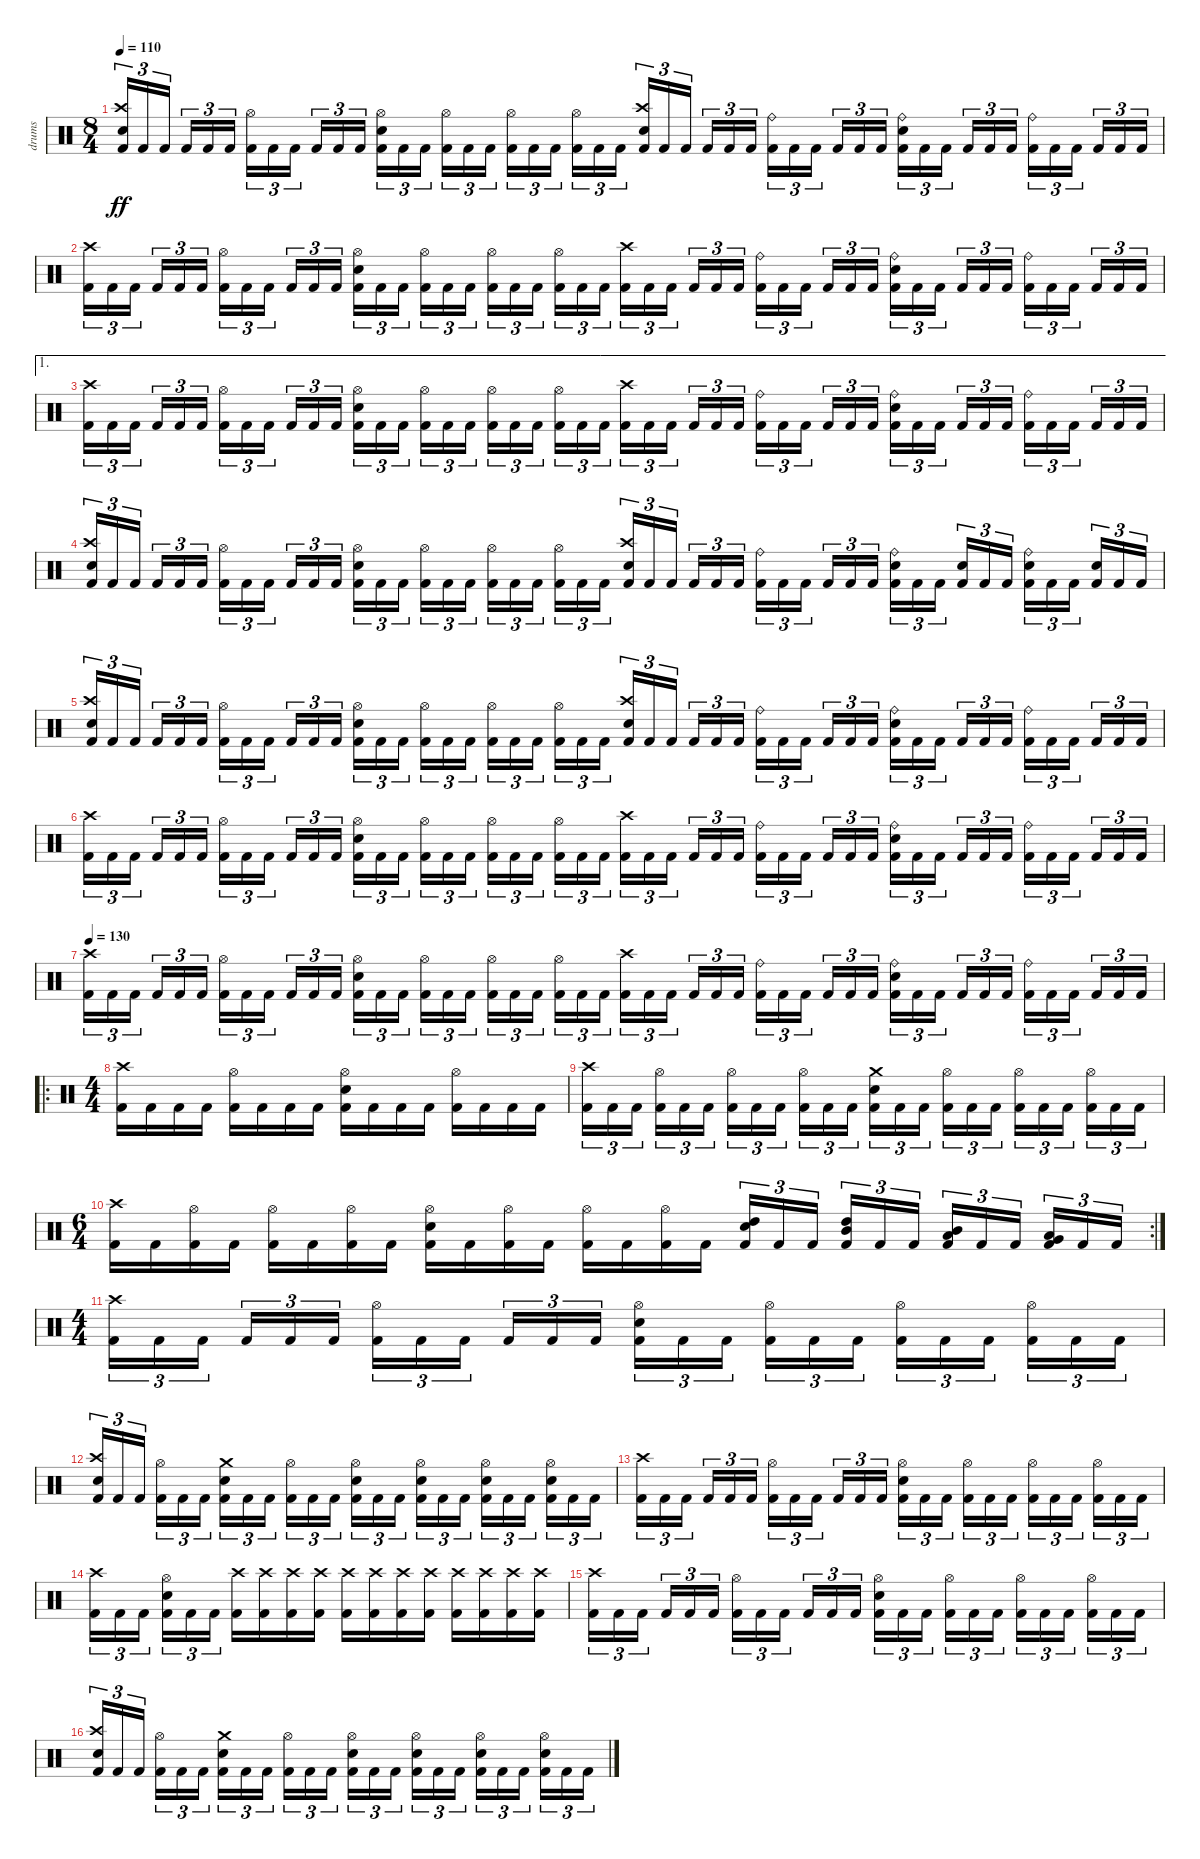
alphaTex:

\track ("drums" "drums") {instrument percussion}
\staff {score}
\articulation defaults
\ts (8 4)
\tempo 110
\clef neutral
\ks c
("Electric Snare (hit)" "Crash high (hit)" "Kick (hit) 2").16{tu (3 2) dy ff} "Kick (hit) 2".16{tu (3 2)} "Kick (hit) 2".16{tu (3 2) beam splitsecondary} "Kick (hit) 2".16{tu (3 2)} "Kick (hit) 2".16{tu (3 2)} "Kick (hit) 2".16{tu (3 2)} ("Hi-Hat (open)" "Kick (hit) 2").16{tu (3 2)} "Kick (hit) 2".16{tu (3 2)} "Kick (hit) 2".16{tu (3 2) beam splitsecondary} "Kick (hit) 2".16{tu (3 2)} "Kick (hit) 2".16{tu (3 2)} "Kick (hit) 2".16{tu (3 2)} ("Electric Snare (hit)" "Hi-Hat (open)" "Kick (hit) 2").16{tu (3 2)} "Kick (hit) 2".16{tu (3 2)} "Kick (hit) 2".16{tu (3 2) beam splitsecondary} ("Hi-Hat (open)" "Kick (hit) 2").16{tu (3 2)} "Kick (hit) 2".16{tu (3 2)} "Kick (hit) 2".16{tu (3 2)} ("Hi-Hat (open)" "Kick (hit) 2").16{tu (3 2)} "Kick (hit) 2".16{tu (3 2)} "Kick (hit) 2".16{tu (3 2) beam splitsecondary} ("Hi-Hat (open)" "Kick (hit) 2").16{tu (3 2)} "Kick (hit) 2".16{tu (3 2)} "Kick (hit) 2".16{tu (3 2)} ("Electric Snare (hit)" "Crash high (hit)" "Kick (hit) 2").16{tu (3 2)} "Kick (hit) 2".16{tu (3 2)} "Kick (hit) 2".16{tu (3 2) beam splitsecondary} "Kick (hit) 2".16{tu (3 2)} "Kick (hit) 2".16{tu (3 2)} "Kick (hit) 2".16{tu (3 2)} ("Ride (bell)" "Kick (hit) 2").16{tu (3 2)} "Kick (hit) 2".16{tu (3 2)} "Kick (hit) 2".16{tu (3 2) beam splitsecondary} "Kick (hit) 2".16{tu (3 2)} "Kick (hit) 2".16{tu (3 2)} "Kick (hit) 2".16{tu (3 2)} ("Electric Snare (hit)" "Ride (bell)" "Kick (hit) 2").16{tu (3 2)} "Kick (hit) 2".16{tu (3 2)} "Kick (hit) 2".16{tu (3 2) beam splitsecondary} "Kick (hit) 2".16{tu (3 2)} "Kick (hit) 2".16{tu (3 2)} "Kick (hit) 2".16{tu (3 2)} ("Ride (bell)" "Kick (hit) 2").16{tu (3 2)} "Kick (hit) 2".16{tu (3 2)} "Kick (hit) 2".16{tu (3 2) beam splitsecondary} "Kick (hit) 2".16{tu (3 2)} "Kick (hit) 2".16{tu (3 2)} "Kick (hit) 2".16{tu (3 2)} |
("Crash high (hit)" "Kick (hit) 2").16{tu (3 2)} "Kick (hit) 2".16{tu (3 2)} "Kick (hit) 2".16{tu (3 2) beam splitsecondary} "Kick (hit) 2".16{tu (3 2)} "Kick (hit) 2".16{tu (3 2)} "Kick (hit) 2".16{tu (3 2)} ("Hi-Hat (open)" "Kick (hit) 2").16{tu (3 2)} "Kick (hit) 2".16{tu (3 2)} "Kick (hit) 2".16{tu (3 2) beam splitsecondary} "Kick (hit) 2".16{tu (3 2)} "Kick (hit) 2".16{tu (3 2)} "Kick (hit) 2".16{tu (3 2)} ("Electric Snare (hit)" "Hi-Hat (open)" "Kick (hit) 2").16{tu (3 2)} "Kick (hit) 2".16{tu (3 2)} "Kick (hit) 2".16{tu (3 2) beam splitsecondary} ("Hi-Hat (open)" "Kick (hit) 2").16{tu (3 2)} "Kick (hit) 2".16{tu (3 2)} "Kick (hit) 2".16{tu (3 2)} ("Hi-Hat (open)" "Kick (hit) 2").16{tu (3 2)} "Kick (hit) 2".16{tu (3 2)} "Kick (hit) 2".16{tu (3 2) beam splitsecondary} ("Hi-Hat (open)" "Kick (hit) 2").16{tu (3 2)} "Kick (hit) 2".16{tu (3 2)} "Kick (hit) 2".16{tu (3 2)} ("Crash high (hit)" "Kick (hit) 2").16{tu (3 2)} "Kick (hit) 2".16{tu (3 2)} "Kick (hit) 2".16{tu (3 2) beam splitsecondary} "Kick (hit) 2".16{tu (3 2)} "Kick (hit) 2".16{tu (3 2)} "Kick (hit) 2".16{tu (3 2)} ("Ride (bell)" "Kick (hit) 2").16{tu (3 2)} "Kick (hit) 2".16{tu (3 2)} "Kick (hit) 2".16{tu (3 2) beam splitsecondary} "Kick (hit) 2".16{tu (3 2)} "Kick (hit) 2".16{tu (3 2)} "Kick (hit) 2".16{tu (3 2)} ("Electric Snare (hit)" "Ride (bell)" "Kick (hit) 2").16{tu (3 2)} "Kick (hit) 2".16{tu (3 2)} "Kick (hit) 2".16{tu (3 2) beam splitsecondary} "Kick (hit) 2".16{tu (3 2)} "Kick (hit) 2".16{tu (3 2)} "Kick (hit) 2".16{tu (3 2)} ("Ride (bell)" "Kick (hit) 2").16{tu (3 2)} "Kick (hit) 2".16{tu (3 2)} "Kick (hit) 2".16{tu (3 2) beam splitsecondary} "Kick (hit) 2".16{tu (3 2)} "Kick (hit) 2".16{tu (3 2)} "Kick (hit) 2".16{tu (3 2)} |
\ae 1
("Crash high (hit)" "Kick (hit) 2").16{tu (3 2)} "Kick (hit) 2".16{tu (3 2)} "Kick (hit) 2".16{tu (3 2) beam splitsecondary} "Kick (hit) 2".16{tu (3 2)} "Kick (hit) 2".16{tu (3 2)} "Kick (hit) 2".16{tu (3 2)} ("Hi-Hat (open)" "Kick (hit) 2").16{tu (3 2)} "Kick (hit) 2".16{tu (3 2)} "Kick (hit) 2".16{tu (3 2) beam splitsecondary} "Kick (hit) 2".16{tu (3 2)} "Kick (hit) 2".16{tu (3 2)} "Kick (hit) 2".16{tu (3 2)} ("Electric Snare (hit)" "Hi-Hat (open)" "Kick (hit) 2").16{tu (3 2)} "Kick (hit) 2".16{tu (3 2)} "Kick (hit) 2".16{tu (3 2) beam splitsecondary} ("Hi-Hat (open)" "Kick (hit) 2").16{tu (3 2)} "Kick (hit) 2".16{tu (3 2)} "Kick (hit) 2".16{tu (3 2)} ("Hi-Hat (open)" "Kick (hit) 2").16{tu (3 2)} "Kick (hit) 2".16{tu (3 2)} "Kick (hit) 2".16{tu (3 2) beam splitsecondary} ("Hi-Hat (open)" "Kick (hit) 2").16{tu (3 2)} "Kick (hit) 2".16{tu (3 2)} "Kick (hit) 2".16{tu (3 2)} ("Crash high (hit)" "Kick (hit) 2").16{tu (3 2)} "Kick (hit) 2".16{tu (3 2)} "Kick (hit) 2".16{tu (3 2) beam splitsecondary} "Kick (hit) 2".16{tu (3 2)} "Kick (hit) 2".16{tu (3 2)} "Kick (hit) 2".16{tu (3 2)} ("Ride (bell)" "Kick (hit) 2").16{tu (3 2)} "Kick (hit) 2".16{tu (3 2)} "Kick (hit) 2".16{tu (3 2) beam splitsecondary} "Kick (hit) 2".16{tu (3 2)} "Kick (hit) 2".16{tu (3 2)} "Kick (hit) 2".16{tu (3 2)} ("Electric Snare (hit)" "Ride (bell)" "Kick (hit) 2").16{tu (3 2)} "Kick (hit) 2".16{tu (3 2)} "Kick (hit) 2".16{tu (3 2) beam splitsecondary} "Kick (hit) 2".16{tu (3 2)} "Kick (hit) 2".16{tu (3 2)} "Kick (hit) 2".16{tu (3 2)} ("Ride (bell)" "Kick (hit) 2").16{tu (3 2)} "Kick (hit) 2".16{tu (3 2)} "Kick (hit) 2".16{tu (3 2) beam splitsecondary} "Kick (hit) 2".16{tu (3 2)} "Kick (hit) 2".16{tu (3 2)} "Kick (hit) 2".16{tu (3 2)} |
("Electric Snare (hit)" "Crash high (hit)" "Kick (hit) 2").16{tu (3 2)} "Kick (hit) 2".16{tu (3 2)} "Kick (hit) 2".16{tu (3 2) beam splitsecondary} "Kick (hit) 2".16{tu (3 2)} "Kick (hit) 2".16{tu (3 2)} "Kick (hit) 2".16{tu (3 2)} ("Hi-Hat (open)" "Kick (hit) 2").16{tu (3 2)} "Kick (hit) 2".16{tu (3 2)} "Kick (hit) 2".16{tu (3 2) beam splitsecondary} "Kick (hit) 2".16{tu (3 2)} "Kick (hit) 2".16{tu (3 2)} "Kick (hit) 2".16{tu (3 2)} ("Electric Snare (hit)" "Hi-Hat (open)" "Kick (hit) 2").16{tu (3 2)} "Kick (hit) 2".16{tu (3 2)} "Kick (hit) 2".16{tu (3 2) beam splitsecondary} ("Hi-Hat (open)" "Kick (hit) 2").16{tu (3 2)} "Kick (hit) 2".16{tu (3 2)} "Kick (hit) 2".16{tu (3 2)} ("Hi-Hat (open)" "Kick (hit) 2").16{tu (3 2)} "Kick (hit) 2".16{tu (3 2)} "Kick (hit) 2".16{tu (3 2) beam splitsecondary} ("Hi-Hat (open)" "Kick (hit) 2").16{tu (3 2)} "Kick (hit) 2".16{tu (3 2)} "Kick (hit) 2".16{tu (3 2)} ("Electric Snare (hit)" "Crash high (hit)" "Kick (hit) 2").16{tu (3 2)} "Kick (hit) 2".16{tu (3 2)} "Kick (hit) 2".16{tu (3 2) beam splitsecondary} "Kick (hit) 2".16{tu (3 2)} "Kick (hit) 2".16{tu (3 2)} "Kick (hit) 2".16{tu (3 2)} ("Ride (bell)" "Kick (hit) 2").16{tu (3 2)} "Kick (hit) 2".16{tu (3 2)} "Kick (hit) 2".16{tu (3 2) beam splitsecondary} "Kick (hit) 2".16{tu (3 2)} "Kick (hit) 2".16{tu (3 2)} "Kick (hit) 2".16{tu (3 2)} ("Electric Snare (hit)" "Ride (bell)" "Kick (hit) 2").16{tu (3 2)} "Kick (hit) 2".16{tu (3 2)} "Kick (hit) 2".16{tu (3 2) beam splitsecondary} ("Electric Snare (hit)" "Kick (hit) 2").16{tu (3 2)} "Kick (hit) 2".16{tu (3 2)} "Kick (hit) 2".16{tu (3 2)} ("Electric Snare (hit)" "Ride (bell)" "Kick (hit) 2").16{tu (3 2)} "Kick (hit) 2".16{tu (3 2)} "Kick (hit) 2".16{tu (3 2) beam splitsecondary} ("Electric Snare (hit)" "Kick (hit) 2").16{tu (3 2)} "Kick (hit) 2".16{tu (3 2)} "Kick (hit) 2".16{tu (3 2)} |
("Electric Snare (hit)" "Crash high (hit)" "Kick (hit) 2").16{tu (3 2)} "Kick (hit) 2".16{tu (3 2)} "Kick (hit) 2".16{tu (3 2) beam splitsecondary} "Kick (hit) 2".16{tu (3 2)} "Kick (hit) 2".16{tu (3 2)} "Kick (hit) 2".16{tu (3 2)} ("Hi-Hat (open)" "Kick (hit) 2").16{tu (3 2)} "Kick (hit) 2".16{tu (3 2)} "Kick (hit) 2".16{tu (3 2) beam splitsecondary} "Kick (hit) 2".16{tu (3 2)} "Kick (hit) 2".16{tu (3 2)} "Kick (hit) 2".16{tu (3 2)} ("Electric Snare (hit)" "Hi-Hat (open)" "Kick (hit) 2").16{tu (3 2)} "Kick (hit) 2".16{tu (3 2)} "Kick (hit) 2".16{tu (3 2) beam splitsecondary} ("Hi-Hat (open)" "Kick (hit) 2").16{tu (3 2)} "Kick (hit) 2".16{tu (3 2)} "Kick (hit) 2".16{tu (3 2)} ("Hi-Hat (open)" "Kick (hit) 2").16{tu (3 2)} "Kick (hit) 2".16{tu (3 2)} "Kick (hit) 2".16{tu (3 2) beam splitsecondary} ("Hi-Hat (open)" "Kick (hit) 2").16{tu (3 2)} "Kick (hit) 2".16{tu (3 2)} "Kick (hit) 2".16{tu (3 2)} ("Electric Snare (hit)" "Crash high (hit)" "Kick (hit) 2").16{tu (3 2)} "Kick (hit) 2".16{tu (3 2)} "Kick (hit) 2".16{tu (3 2) beam splitsecondary} "Kick (hit) 2".16{tu (3 2)} "Kick (hit) 2".16{tu (3 2)} "Kick (hit) 2".16{tu (3 2)} ("Ride (bell)" "Kick (hit) 2").16{tu (3 2)} "Kick (hit) 2".16{tu (3 2)} "Kick (hit) 2".16{tu (3 2) beam splitsecondary} "Kick (hit) 2".16{tu (3 2)} "Kick (hit) 2".16{tu (3 2)} "Kick (hit) 2".16{tu (3 2)} ("Electric Snare (hit)" "Ride (bell)" "Kick (hit) 2").16{tu (3 2)} "Kick (hit) 2".16{tu (3 2)} "Kick (hit) 2".16{tu (3 2) beam splitsecondary} "Kick (hit) 2".16{tu (3 2)} "Kick (hit) 2".16{tu (3 2)} "Kick (hit) 2".16{tu (3 2)} ("Ride (bell)" "Kick (hit) 2").16{tu (3 2)} "Kick (hit) 2".16{tu (3 2)} "Kick (hit) 2".16{tu (3 2) beam splitsecondary} "Kick (hit) 2".16{tu (3 2)} "Kick (hit) 2".16{tu (3 2)} "Kick (hit) 2".16{tu (3 2)} |
("Crash high (hit)" "Kick (hit) 2").16{tu (3 2)} "Kick (hit) 2".16{tu (3 2)} "Kick (hit) 2".16{tu (3 2) beam splitsecondary} "Kick (hit) 2".16{tu (3 2)} "Kick (hit) 2".16{tu (3 2)} "Kick (hit) 2".16{tu (3 2)} ("Hi-Hat (open)" "Kick (hit) 2").16{tu (3 2)} "Kick (hit) 2".16{tu (3 2)} "Kick (hit) 2".16{tu (3 2) beam splitsecondary} "Kick (hit) 2".16{tu (3 2)} "Kick (hit) 2".16{tu (3 2)} "Kick (hit) 2".16{tu (3 2)} ("Electric Snare (hit)" "Hi-Hat (open)" "Kick (hit) 2").16{tu (3 2)} "Kick (hit) 2".16{tu (3 2)} "Kick (hit) 2".16{tu (3 2) beam splitsecondary} ("Hi-Hat (open)" "Kick (hit) 2").16{tu (3 2)} "Kick (hit) 2".16{tu (3 2)} "Kick (hit) 2".16{tu (3 2)} ("Hi-Hat (open)" "Kick (hit) 2").16{tu (3 2)} "Kick (hit) 2".16{tu (3 2)} "Kick (hit) 2".16{tu (3 2) beam splitsecondary} ("Hi-Hat (open)" "Kick (hit) 2").16{tu (3 2)} "Kick (hit) 2".16{tu (3 2)} "Kick (hit) 2".16{tu (3 2)} ("Crash high (hit)" "Kick (hit) 2").16{tu (3 2)} "Kick (hit) 2".16{tu (3 2)} "Kick (hit) 2".16{tu (3 2) beam splitsecondary} "Kick (hit) 2".16{tu (3 2)} "Kick (hit) 2".16{tu (3 2)} "Kick (hit) 2".16{tu (3 2)} ("Ride (bell)" "Kick (hit) 2").16{tu (3 2)} "Kick (hit) 2".16{tu (3 2)} "Kick (hit) 2".16{tu (3 2) beam splitsecondary} "Kick (hit) 2".16{tu (3 2)} "Kick (hit) 2".16{tu (3 2)} "Kick (hit) 2".16{tu (3 2)} ("Electric Snare (hit)" "Ride (bell)" "Kick (hit) 2").16{tu (3 2)} "Kick (hit) 2".16{tu (3 2)} "Kick (hit) 2".16{tu (3 2) beam splitsecondary} "Kick (hit) 2".16{tu (3 2)} "Kick (hit) 2".16{tu (3 2)} "Kick (hit) 2".16{tu (3 2)} ("Ride (bell)" "Kick (hit) 2").16{tu (3 2)} "Kick (hit) 2".16{tu (3 2)} "Kick (hit) 2".16{tu (3 2) beam splitsecondary} "Kick (hit) 2".16{tu (3 2)} "Kick (hit) 2".16{tu (3 2)} "Kick (hit) 2".16{tu (3 2)} |
\tempo 130
("Crash high (hit)" "Kick (hit) 2").16{tu (3 2)} "Kick (hit) 2".16{tu (3 2)} "Kick (hit) 2".16{tu (3 2) beam splitsecondary} "Kick (hit) 2".16{tu (3 2)} "Kick (hit) 2".16{tu (3 2)} "Kick (hit) 2".16{tu (3 2)} ("Hi-Hat (open)" "Kick (hit) 2").16{tu (3 2)} "Kick (hit) 2".16{tu (3 2)} "Kick (hit) 2".16{tu (3 2) beam splitsecondary} "Kick (hit) 2".16{tu (3 2)} "Kick (hit) 2".16{tu (3 2)} "Kick (hit) 2".16{tu (3 2)} ("Electric Snare (hit)" "Hi-Hat (open)" "Kick (hit) 2").16{tu (3 2)} "Kick (hit) 2".16{tu (3 2)} "Kick (hit) 2".16{tu (3 2) beam splitsecondary} ("Hi-Hat (open)" "Kick (hit) 2").16{tu (3 2)} "Kick (hit) 2".16{tu (3 2)} "Kick (hit) 2".16{tu (3 2)} ("Hi-Hat (open)" "Kick (hit) 2").16{tu (3 2)} "Kick (hit) 2".16{tu (3 2)} "Kick (hit) 2".16{tu (3 2) beam splitsecondary} ("Hi-Hat (open)" "Kick (hit) 2").16{tu (3 2)} "Kick (hit) 2".16{tu (3 2)} "Kick (hit) 2".16{tu (3 2)} ("Crash high (hit)" "Kick (hit) 2").16{tu (3 2)} "Kick (hit) 2".16{tu (3 2)} "Kick (hit) 2".16{tu (3 2) beam splitsecondary} "Kick (hit) 2".16{tu (3 2)} "Kick (hit) 2".16{tu (3 2)} "Kick (hit) 2".16{tu (3 2)} ("Ride (bell)" "Kick (hit) 2").16{tu (3 2)} "Kick (hit) 2".16{tu (3 2)} "Kick (hit) 2".16{tu (3 2) beam splitsecondary} "Kick (hit) 2".16{tu (3 2)} "Kick (hit) 2".16{tu (3 2)} "Kick (hit) 2".16{tu (3 2)} ("Electric Snare (hit)" "Ride (bell)" "Kick (hit) 2").16{tu (3 2)} "Kick (hit) 2".16{tu (3 2)} "Kick (hit) 2".16{tu (3 2) beam splitsecondary} "Kick (hit) 2".16{tu (3 2)} "Kick (hit) 2".16{tu (3 2)} "Kick (hit) 2".16{tu (3 2)} ("Ride (bell)" "Kick (hit) 2").16{tu (3 2)} "Kick (hit) 2".16{tu (3 2)} "Kick (hit) 2".16{tu (3 2) beam splitsecondary} "Kick (hit) 2".16{tu (3 2)} "Kick (hit) 2".16{tu (3 2)} "Kick (hit) 2".16{tu (3 2)} |
\ro
\ts (4 4)
("Crash high (hit)" "Kick (hit) 2").16{volume 13} "Kick (hit) 2".16 "Kick (hit) 2".16 "Kick (hit) 2".16 ("Hi-Hat (open)" "Kick (hit) 2").16 "Kick (hit) 2".16 "Kick (hit) 2".16 "Kick (hit) 2".16 ("Electric Snare (hit)" "Hi-Hat (open)" "Kick (hit) 2").16 "Kick (hit) 2".16 "Kick (hit) 2".16 "Kick (hit) 2".16 ("Hi-Hat (open)" "Kick (hit) 2").16 "Kick (hit) 2".16 "Kick (hit) 2".16 "Kick (hit) 2".16 |
("Crash high (hit)" "Kick (hit) 2").16{tu (3 2)} "Kick (hit) 2".16{tu (3 2)} "Kick (hit) 2".16{tu (3 2) beam splitsecondary} ("Hi-Hat (open)" "Kick (hit) 2").16{tu (3 2)} "Kick (hit) 2".16{tu (3 2)} "Kick (hit) 2".16{tu (3 2)} ("Hi-Hat (open)" "Kick (hit) 2").16{tu (3 2)} "Kick (hit) 2".16{tu (3 2)} "Kick (hit) 2".16{tu (3 2) beam splitsecondary} ("Hi-Hat (open)" "Kick (hit) 2").16{tu (3 2)} "Kick (hit) 2".16{tu (3 2)} "Kick (hit) 2".16{tu (3 2)} ("Electric Snare (hit)" "Crash medium (hit)" "Kick (hit) 2").16{tu (3 2)} "Kick (hit) 2".16{tu (3 2)} "Kick (hit) 2".16{tu (3 2) beam splitsecondary} ("Hi-Hat (open)" "Kick (hit) 2").16{tu (3 2)} "Kick (hit) 2".16{tu (3 2)} "Kick (hit) 2".16{tu (3 2)} ("Hi-Hat (open)" "Kick (hit) 2").16{tu (3 2)} "Kick (hit) 2".16{tu (3 2)} "Kick (hit) 2".16{tu (3 2) beam splitsecondary} ("Hi-Hat (open)" "Kick (hit) 2").16{tu (3 2)} "Kick (hit) 2".16{tu (3 2)} "Kick (hit) 2".16{tu (3 2)} |
\rc 2
\ts (6 4)
("Crash high (hit)" "Kick (hit) 2").16 "Kick (hit) 2".16 ("Hi-Hat (open)" "Kick (hit) 2").16 "Kick (hit) 2".16 ("Hi-Hat (open)" "Kick (hit) 2").16 "Kick (hit) 2".16 ("Hi-Hat (open)" "Kick (hit) 2").16 "Kick (hit) 2".16 ("Electric Snare (hit)" "Hi-Hat (open)" "Kick (hit) 2").16 "Kick (hit) 2".16 ("Hi-Hat (open)" "Kick (hit) 2").16 "Kick (hit) 2".16 ("Hi-Hat (open)" "Kick (hit) 2").16 "Kick (hit) 2".16 ("Hi-Hat (open)" "Kick (hit) 2").16 "Kick (hit) 2".16{beam splitsecondary} ("High Tom (hit)" "Electric Snare (hit)" "Kick (hit) 2").16{tu (3 2)} "Kick (hit) 2".16{tu (3 2)} "Kick (hit) 2".16{tu (3 2) beam splitsecondary} ("Mid Tom (hit)" "High Tom (hit)" "Kick (hit) 2").16{tu (3 2)} "Kick (hit) 2".16{tu (3 2)} "Kick (hit) 2".16{tu (3 2) beam splitsecondary} ("Mid Tom (hit)" "Low Tom (hit)" "Kick (hit) 2").16{tu (3 2)} "Kick (hit) 2".16{tu (3 2)} "Kick (hit) 2".16{tu (3 2) beam splitsecondary} ("Low Tom (hit)" "Very Low Tom (hit)" "Kick (hit) 2").16{tu (3 2)} "Kick (hit) 2".16{tu (3 2)} "Kick (hit) 2".16{tu (3 2)} |
\ts (4 4)
("Crash high (hit)" "Kick (hit) 2").16{tu (3 2)} "Kick (hit) 2".16{tu (3 2)} "Kick (hit) 2".16{tu (3 2) beam splitsecondary} "Kick (hit) 2".16{tu (3 2)} "Kick (hit) 2".16{tu (3 2)} "Kick (hit) 2".16{tu (3 2)} ("Hi-Hat (open)" "Kick (hit) 2").16{tu (3 2)} "Kick (hit) 2".16{tu (3 2)} "Kick (hit) 2".16{tu (3 2) beam splitsecondary} "Kick (hit) 2".16{tu (3 2)} "Kick (hit) 2".16{tu (3 2)} "Kick (hit) 2".16{tu (3 2)} ("Electric Snare (hit)" "Hi-Hat (open)" "Kick (hit) 2").16{tu (3 2)} "Kick (hit) 2".16{tu (3 2)} "Kick (hit) 2".16{tu (3 2) beam splitsecondary} ("Hi-Hat (open)" "Kick (hit) 2").16{tu (3 2)} "Kick (hit) 2".16{tu (3 2)} "Kick (hit) 2".16{tu (3 2)} ("Hi-Hat (open)" "Kick (hit) 2").16{tu (3 2)} "Kick (hit) 2".16{tu (3 2)} "Kick (hit) 2".16{tu (3 2) beam splitsecondary} ("Hi-Hat (open)" "Kick (hit) 2").16{tu (3 2)} "Kick (hit) 2".16{tu (3 2)} "Kick (hit) 2".16{tu (3 2)} |
("Electric Snare (hit)" "Crash high (hit)" "Kick (hit) 2").16{tu (3 2)} "Kick (hit) 2".16{tu (3 2)} "Kick (hit) 2".16{tu (3 2) beam splitsecondary} ("Hi-Hat (open)" "Kick (hit) 2").16{tu (3 2)} "Kick (hit) 2".16{tu (3 2)} "Kick (hit) 2".16{tu (3 2)} ("Electric Snare (hit)" "Crash medium (hit)" "Kick (hit) 2").16{tu (3 2)} "Kick (hit) 2".16{tu (3 2)} "Kick (hit) 2".16{tu (3 2) beam splitsecondary} ("Hi-Hat (open)" "Kick (hit) 2").16{tu (3 2)} "Kick (hit) 2".16{tu (3 2)} "Kick (hit) 2".16{tu (3 2)} ("Electric Snare (hit)" "Hi-Hat (open)" "Kick (hit) 2").16{tu (3 2)} "Kick (hit) 2".16{tu (3 2)} "Kick (hit) 2".16{tu (3 2) beam splitsecondary} ("Electric Snare (hit)" "Hi-Hat (open)" "Kick (hit) 2").16{tu (3 2)} "Kick (hit) 2".16{tu (3 2)} "Kick (hit) 2".16{tu (3 2)} ("Electric Snare (hit)" "Hi-Hat (open)" "Kick (hit) 2").16{tu (3 2)} "Kick (hit) 2".16{tu (3 2)} "Kick (hit) 2".16{tu (3 2) beam splitsecondary} ("Electric Snare (hit)" "Hi-Hat (open)" "Kick (hit) 2").16{tu (3 2)} "Kick (hit) 2".16{tu (3 2)} "Kick (hit) 2".16{tu (3 2)} |
("Crash high (hit)" "Kick (hit) 2").16{tu (3 2)} "Kick (hit) 2".16{tu (3 2)} "Kick (hit) 2".16{tu (3 2) beam splitsecondary} "Kick (hit) 2".16{tu (3 2)} "Kick (hit) 2".16{tu (3 2)} "Kick (hit) 2".16{tu (3 2)} ("Hi-Hat (open)" "Kick (hit) 2").16{tu (3 2)} "Kick (hit) 2".16{tu (3 2)} "Kick (hit) 2".16{tu (3 2) beam splitsecondary} "Kick (hit) 2".16{tu (3 2)} "Kick (hit) 2".16{tu (3 2)} "Kick (hit) 2".16{tu (3 2)} ("Electric Snare (hit)" "Hi-Hat (open)" "Kick (hit) 2").16{tu (3 2)} "Kick (hit) 2".16{tu (3 2)} "Kick (hit) 2".16{tu (3 2) beam splitsecondary} ("Hi-Hat (open)" "Kick (hit) 2").16{tu (3 2)} "Kick (hit) 2".16{tu (3 2)} "Kick (hit) 2".16{tu (3 2)} ("Hi-Hat (open)" "Kick (hit) 2").16{tu (3 2)} "Kick (hit) 2".16{tu (3 2)} "Kick (hit) 2".16{tu (3 2) beam splitsecondary} ("Hi-Hat (open)" "Kick (hit) 2").16{tu (3 2)} "Kick (hit) 2".16{tu (3 2)} "Kick (hit) 2".16{tu (3 2)} |
("Crash high (hit)" "Kick (hit) 2").16{tu (3 2)} "Kick (hit) 2".16{tu (3 2)} "Kick (hit) 2".16{tu (3 2) beam splitsecondary} ("Electric Snare (hit)" "Hi-Hat (open)" "Kick (hit) 2").16{tu (3 2)} "Kick (hit) 2".16{tu (3 2)} "Kick (hit) 2".16{tu (3 2)} ("Crash high (hit)" "Kick (hit) 2").16{volume 13} ("Kick (hit) 2" "Crash high (hit)").16{volume 0} ("Crash high (hit)" "Kick (hit) 2").16{volume 13} ("Kick (hit) 2" "Crash high (hit)").16{volume 0} ("Crash high (hit)" "Kick (hit) 2").16{volume 13} ("Kick (hit) 2" "Crash high (hit)").16{volume 0} ("Crash high (hit)" "Kick (hit) 2").16{volume 13} ("Kick (hit) 2" "Crash high (hit)").16{volume 0} ("Crash high (hit)" "Kick (hit) 2").16{volume 13} ("Kick (hit) 2" "Crash high (hit)").16{volume 0} ("Crash high (hit)" "Kick (hit) 2").16{volume 13} ("Kick (hit) 2" "Crash high (hit)").16{volume 0} |
("Crash high (hit)" "Kick (hit) 2").16{tu (3 2) volume 13} "Kick (hit) 2".16{tu (3 2)} "Kick (hit) 2".16{tu (3 2) beam splitsecondary} "Kick (hit) 2".16{tu (3 2)} "Kick (hit) 2".16{tu (3 2)} "Kick (hit) 2".16{tu (3 2)} ("Hi-Hat (open)" "Kick (hit) 2").16{tu (3 2)} "Kick (hit) 2".16{tu (3 2)} "Kick (hit) 2".16{tu (3 2) beam splitsecondary} "Kick (hit) 2".16{tu (3 2)} "Kick (hit) 2".16{tu (3 2)} "Kick (hit) 2".16{tu (3 2)} ("Electric Snare (hit)" "Hi-Hat (open)" "Kick (hit) 2").16{tu (3 2)} "Kick (hit) 2".16{tu (3 2)} "Kick (hit) 2".16{tu (3 2) beam splitsecondary} ("Hi-Hat (open)" "Kick (hit) 2").16{tu (3 2)} "Kick (hit) 2".16{tu (3 2)} "Kick (hit) 2".16{tu (3 2)} ("Hi-Hat (open)" "Kick (hit) 2").16{tu (3 2)} "Kick (hit) 2".16{tu (3 2)} "Kick (hit) 2".16{tu (3 2) beam splitsecondary} ("Hi-Hat (open)" "Kick (hit) 2").16{tu (3 2)} "Kick (hit) 2".16{tu (3 2)} "Kick (hit) 2".16{tu (3 2)} |
("Electric Snare (hit)" "Crash high (hit)" "Kick (hit) 2").16{tu (3 2)} "Kick (hit) 2".16{tu (3 2)} "Kick (hit) 2".16{tu (3 2) beam splitsecondary} ("Hi-Hat (open)" "Kick (hit) 2").16{tu (3 2)} "Kick (hit) 2".16{tu (3 2)} "Kick (hit) 2".16{tu (3 2)} ("Electric Snare (hit)" "Crash medium (hit)" "Kick (hit) 2").16{tu (3 2)} "Kick (hit) 2".16{tu (3 2)} "Kick (hit) 2".16{tu (3 2) beam splitsecondary} ("Hi-Hat (open)" "Kick (hit) 2").16{tu (3 2)} "Kick (hit) 2".16{tu (3 2)} "Kick (hit) 2".16{tu (3 2)} ("Electric Snare (hit)" "Hi-Hat (open)" "Kick (hit) 2").16{tu (3 2)} "Kick (hit) 2".16{tu (3 2)} "Kick (hit) 2".16{tu (3 2) beam splitsecondary} ("Electric Snare (hit)" "Hi-Hat (open)" "Kick (hit) 2").16{tu (3 2)} "Kick (hit) 2".16{tu (3 2)} "Kick (hit) 2".16{tu (3 2)} ("Electric Snare (hit)" "Hi-Hat (open)" "Kick (hit) 2").16{tu (3 2)} "Kick (hit) 2".16{tu (3 2)} "Kick (hit) 2".16{tu (3 2) beam splitsecondary} ("Electric Snare (hit)" "Hi-Hat (open)" "Kick (hit) 2").16{tu (3 2)} "Kick (hit) 2".16{tu (3 2)} "Kick (hit) 2".16{tu (3 2)}
